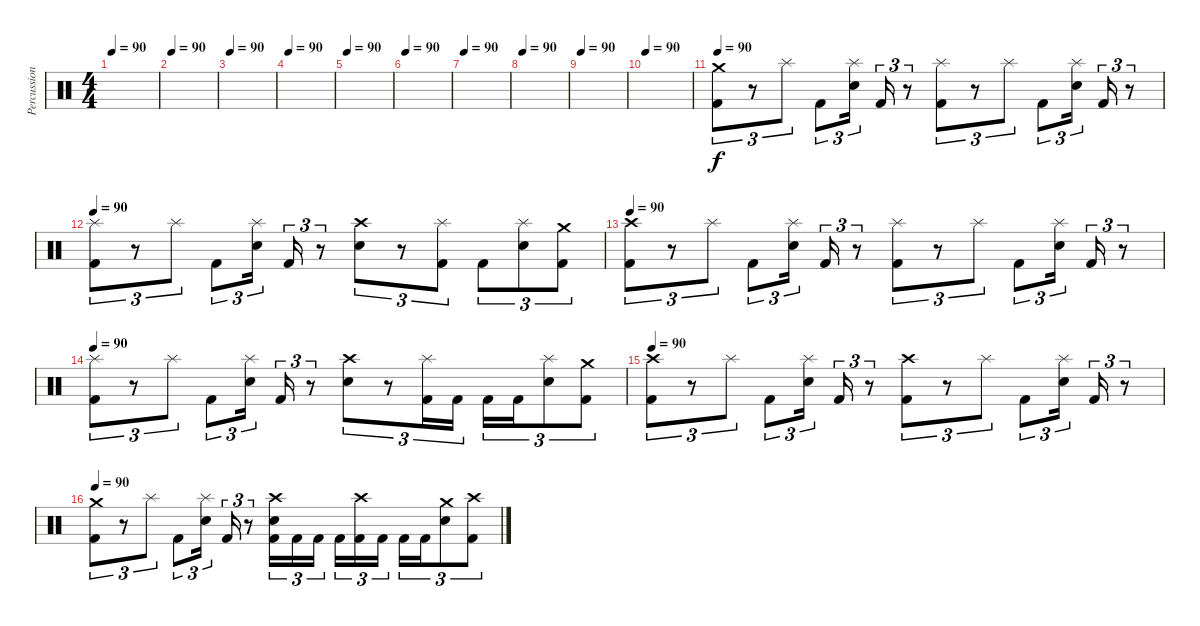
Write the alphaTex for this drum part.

\track ("Percussion" "Percussion") {instrument percussion}
\staff {score}
\articulation defaults
\ts (4 4)
\tempo 90
\clef neutral
\ks c
|
\tempo 90
|
\tempo 90
|
\tempo 90
|
\tempo 90
|
\tempo 90
|
\tempo 90
|
\tempo 90
|
\tempo 90
|
\tempo 90
|
\tempo 90
("Crash medium (hit)" "Kick (hit) 2").8{tu (3 2)} r.8{tu (3 2)} "Splash (hit)".8{tu (3 2)} "Kick (hit) 2".8{tu (3 2)} ("Splash (hit)" "Electric Snare (hit)").16{tu (3 2)} "Kick (hit) 2".16{tu (3 2)} r.8{tu (3 2)} ("Splash (hit)" "Kick (hit) 2").8{tu (3 2)} r.8{tu (3 2)} "Splash (hit)".8{tu (3 2)} "Kick (hit) 2".8{tu (3 2)} ("Splash (hit)" "Electric Snare (hit)").16{tu (3 2)} "Kick (hit) 2".16{tu (3 2)} r.8{tu (3 2)} |
\tempo 90
("Splash (hit)" "Kick (hit) 2").8{tu (3 2)} r.8{tu (3 2)} "Splash (hit)".8{tu (3 2)} "Kick (hit) 2".8{tu (3 2)} ("Splash (hit)" "Electric Snare (hit)").16{tu (3 2)} "Kick (hit) 2".16{tu (3 2)} r.8{tu (3 2)} ("Crash high (hit)" "Electric Snare (hit)").8{tu (3 2)} r.8{tu (3 2)} ("Splash (hit)" "Kick (hit) 2").8{tu (3 2)} "Kick (hit) 2".8{tu (3 2)} ("Splash (hit)" "Electric Snare (hit)").8{tu (3 2)} ("Crash medium (hit)" "Kick (hit) 2").8{tu (3 2)} |
\tempo 90
("Crash high (hit)" "Kick (hit) 2").8{tu (3 2)} r.8{tu (3 2)} "Splash (hit)".8{tu (3 2)} "Kick (hit) 2".8{tu (3 2)} ("Splash (hit)" "Electric Snare (hit)").16{tu (3 2)} "Kick (hit) 2".16{tu (3 2)} r.8{tu (3 2)} ("Splash (hit)" "Kick (hit) 2").8{tu (3 2)} r.8{tu (3 2)} "Splash (hit)".8{tu (3 2)} "Kick (hit) 2".8{tu (3 2)} ("Splash (hit)" "Electric Snare (hit)").16{tu (3 2)} "Kick (hit) 2".16{tu (3 2)} r.8{tu (3 2)} |
\tempo 90
("Splash (hit)" "Kick (hit) 2").8{tu (3 2)} r.8{tu (3 2)} "Splash (hit)".8{tu (3 2)} "Kick (hit) 2".8{tu (3 2)} ("Splash (hit)" "Electric Snare (hit)").16{tu (3 2)} "Kick (hit) 2".16{tu (3 2)} r.8{tu (3 2)} ("Crash high (hit)" "Electric Snare (hit)").8{tu (3 2)} r.8{tu (3 2)} ("Splash (hit)" "Kick (hit) 2").16{tu (3 2)} "Kick (hit) 2".16{tu (3 2)} "Kick (hit) 2".16{tu (3 2)} "Kick (hit) 2".16{tu (3 2)} ("Splash (hit)" "Electric Snare (hit)").8{tu (3 2)} ("Crash medium (hit)" "Kick (hit) 2").8{tu (3 2)} |
\tempo 90
("Crash high (hit)" "Kick (hit) 2").8{tu (3 2)} r.8{tu (3 2)} "Splash (hit)".8{tu (3 2)} "Kick (hit) 2".8{tu (3 2)} ("Splash (hit)" "Electric Snare (hit)").16{tu (3 2)} "Kick (hit) 2".16{tu (3 2)} r.8{tu (3 2)} ("Crash high (hit)" "Kick (hit) 2").8{tu (3 2)} r.8{tu (3 2)} "Splash (hit)".8{tu (3 2)} "Kick (hit) 2".8{tu (3 2)} ("Splash (hit)" "Electric Snare (hit)").16{tu (3 2)} "Kick (hit) 2".16{tu (3 2)} r.8{tu (3 2)} |
\tempo 90
("Crash medium (hit)" "Kick (hit) 2").8{tu (3 2)} r.8{tu (3 2)} "Splash (hit)".8{tu (3 2)} "Kick (hit) 2".8{tu (3 2)} ("Splash (hit)" "Electric Snare (hit)").16{tu (3 2)} "Kick (hit) 2".16{tu (3 2)} r.8{tu (3 2)} ("Crash high (hit)" "Electric Snare (hit)" "Kick (hit) 2").16{tu (3 2)} "Kick (hit) 2".16{tu (3 2)} "Kick (hit) 2".16{tu (3 2)} "Kick (hit) 2".16{tu (3 2)} ("Crash high (hit)" "Kick (hit) 2").16{tu (3 2)} "Kick (hit) 2".16{tu (3 2)} "Kick (hit) 2".16{tu (3 2)} "Kick (hit) 2".16{tu (3 2)} ("Crash medium (hit)" "Electric Snare (hit)").8{tu (3 2)} ("Crash high (hit)" "Kick (hit) 2").8{tu (3 2)}
